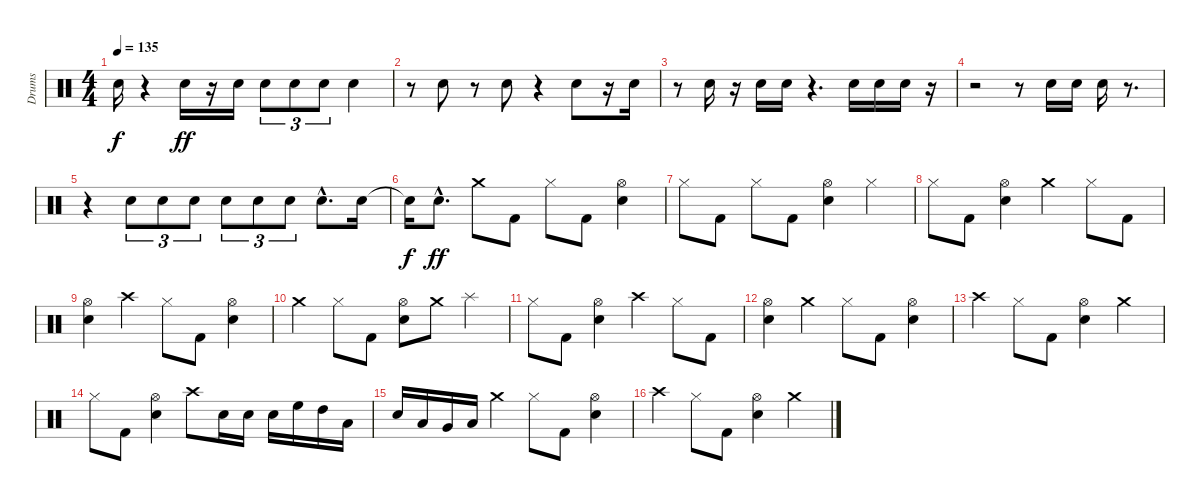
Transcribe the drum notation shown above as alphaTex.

\track ("Drums" "Drums") {instrument percussion}
\staff {score}
\articulation defaults
\ts (4 4)
\tempo 135
\clef neutral
\ks c "Snare (hit)"{t}.16{dy f}
r.4 "Electric Snare (hit)".16{dy ff} r.16 "Electric Snare (hit)".16 "Electric Snare (hit)".8{tu (3 2)} "Electric Snare (hit)".8{tu (3 2)} "Electric Snare (hit)".8{tu (3 2)} "Electric Snare (hit)".4 |
r.8 "Electric Snare (hit)".8 r.8 "Electric Snare (hit)".8 r.4 "Electric Snare (hit)".8 r.16 "Electric Snare (hit)".16 |
r.8 "Electric Snare (hit)".16 r.16 "Electric Snare (hit)".16 "Electric Snare (hit)".16 r.4{d} "Electric Snare (hit)".16 "Electric Snare (hit)".16 "Electric Snare (hit)".16 r.16 |
r.2 r.8 "Electric Snare (hit)".16 "Electric Snare (hit)".16 "Electric Snare (hit)".16 r.8{d} |
r.4 "Electric Snare (hit)".8{tu (3 2)} "Electric Snare (hit)".8{tu (3 2)} "Electric Snare (hit)".8{tu (3 2)} "Electric Snare (hit)".8{tu (3 2)} "Electric Snare (hit)".8{tu (3 2)} "Electric Snare (hit)".8{tu (3 2)} "Electric Snare (hit)"{hac}.8{d} "Electric Snare (hit)".16 |
"Snare (hit)"{t}.16{dy f} "Electric Snare (hit)"{hac}.8{d dy ff} "Crash medium (hit)".8 "Kick (hit) 2".8 "Hi-Hat (closed)".8 "Kick (hit) 2".8 ("Electric Snare (hit)" "Hi-Hat (open)").4 |
"Hi-Hat (closed)".8 "Kick (hit) 2".8 "Hi-Hat (closed)".8 "Kick (hit) 2".8 ("Electric Snare (hit)" "Hi-Hat (open)").4 "Hi-Hat (closed)".4 |
"Hi-Hat (closed)".8 "Kick (hit) 2".8 ("Electric Snare (hit)" "Hi-Hat (open)").4 "Crash medium (hit)".4 "Hi-Hat (closed)".8 "Kick (hit) 2".8 |
("Electric Snare (hit)" "Hi-Hat (open)").4 "Crash high (hit)".4 "Hi-Hat (closed)".8 "Kick (hit) 2".8 ("Electric Snare (hit)" "Hi-Hat (open)").4 |
"Crash medium (hit)".4 "Hi-Hat (closed)".8 "Kick (hit) 2".8 ("Electric Snare (hit)" "Hi-Hat (open)").8 "Crash medium (hit)".8 "Splash (hit)".4 |
"Hi-Hat (closed)".8 "Kick (hit) 2".8 ("Electric Snare (hit)" "Hi-Hat (open)").4 "Crash high (hit)".4 "Hi-Hat (closed)".8 "Kick (hit) 2".8 |
("Electric Snare (hit)" "Hi-Hat (open)").4 "Crash medium (hit)".4 "Hi-Hat (closed)".8 "Kick (hit) 2".8 ("Electric Snare (hit)" "Hi-Hat (open)").4 |
"Crash high (hit)".4 "Hi-Hat (closed)".8 "Kick (hit) 2".8 ("Electric Snare (hit)" "Hi-Hat (open)").4 "Crash medium (hit)".4 |
"Hi-Hat (closed)".8 "Kick (hit) 2".8 ("Electric Snare (hit)" "Hi-Hat (open)").4 "Crash high (hit)".8 "Electric Snare (hit)".16 "Electric Snare (hit)".16 "Electric Snare (hit)".16 "High Floor Tom (hit)".16 "High Tom (hit)".16 "Low Tom (hit)".16 |
"Electric Snare (hit)".16 "Low Tom (hit)".16 "Very Low Tom (hit)".16 "Low Floor Tom (hit)".16 "Crash medium (hit)".4 "Hi-Hat (closed)".8 "Kick (hit) 2".8 ("Electric Snare (hit)" "Hi-Hat (open)").4 |
"Crash high (hit)".4 "Hi-Hat (closed)".8 "Kick (hit) 2".8 ("Electric Snare (hit)" "Hi-Hat (open)").4 "Crash medium (hit)".4
